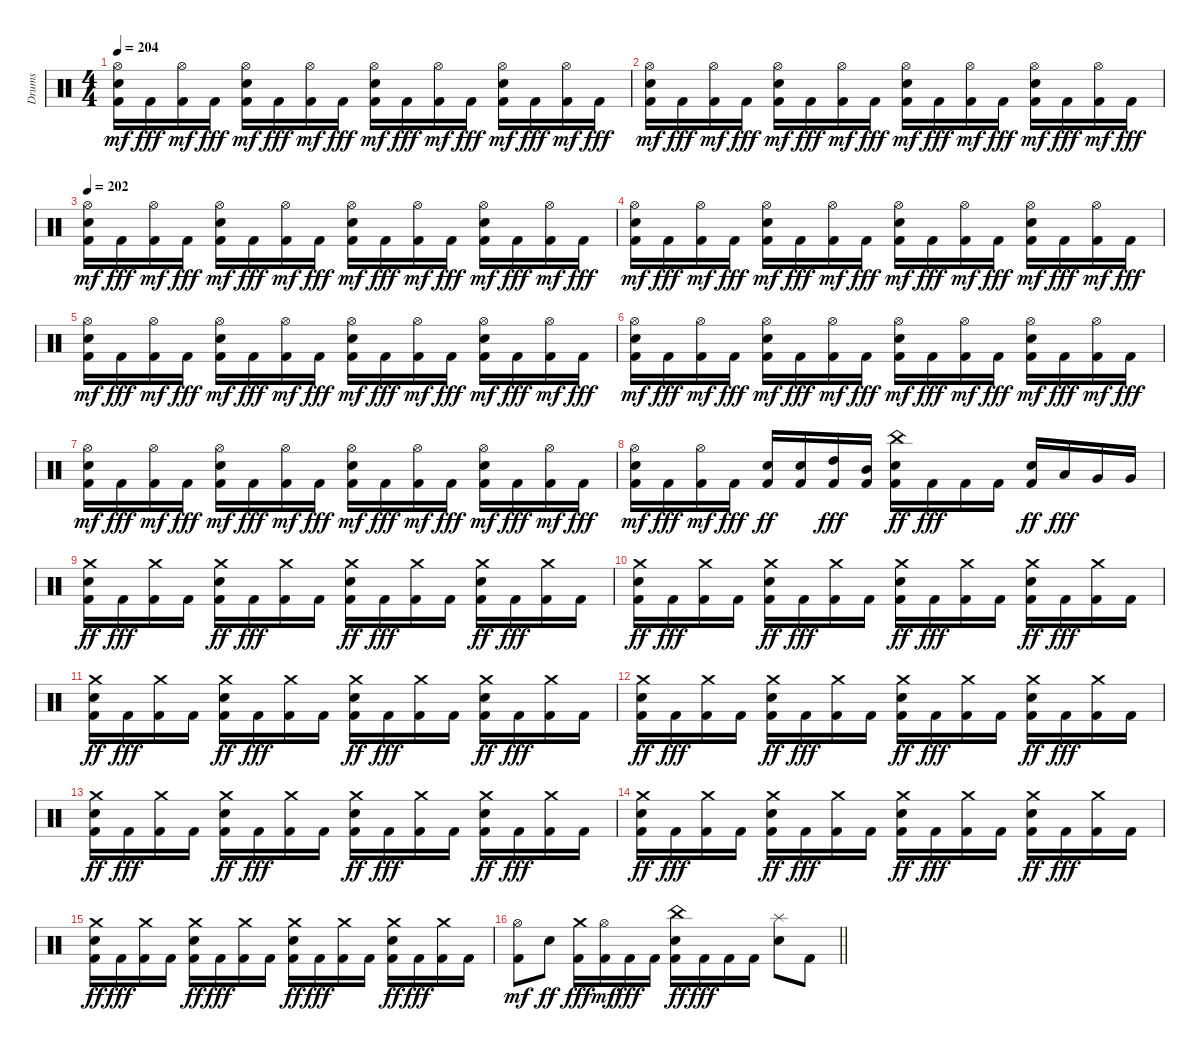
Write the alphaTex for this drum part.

\track ("Drums" "Drums") {instrument percussion}
\staff {score}
\articulation defaults
\ts (4 4)
\tempo 204
\clef neutral
\ks c
("Kick (hit) 2" "Snare (hit) 2" "Hi-Hat (open)").16{dy mf} "Kick (hit) 2".16{dy fff} ("Kick (hit) 2" "Hi-Hat (open)").16{dy mf} "Kick (hit) 2".16{dy fff} ("Kick (hit) 2" "Snare (hit) 2" "Hi-Hat (open)").16{dy mf} "Kick (hit) 2".16{dy fff} ("Kick (hit) 2" "Hi-Hat (open)").16{dy mf} "Kick (hit) 2".16{dy fff} ("Kick (hit) 2" "Snare (hit) 2" "Hi-Hat (open)").16{dy mf} "Kick (hit) 2".16{dy fff} ("Kick (hit) 2" "Hi-Hat (open)").16{dy mf} "Kick (hit) 2".16{dy fff} ("Kick (hit) 2" "Snare (hit) 2" "Hi-Hat (open)").16{dy mf} "Kick (hit) 2".16{dy fff} ("Kick (hit) 2" "Hi-Hat (open)").16{dy mf} "Kick (hit) 2".16{dy fff} |
("Kick (hit) 2" "Snare (hit) 2" "Hi-Hat (open)").16{dy mf} "Kick (hit) 2".16{dy fff} ("Kick (hit) 2" "Hi-Hat (open)").16{dy mf} "Kick (hit) 2".16{dy fff} ("Kick (hit) 2" "Snare (hit) 2" "Hi-Hat (open)").16{dy mf} "Kick (hit) 2".16{dy fff} ("Kick (hit) 2" "Hi-Hat (open)").16{dy mf} "Kick (hit) 2".16{dy fff} ("Kick (hit) 2" "Snare (hit) 2" "Hi-Hat (open)").16{dy mf} "Kick (hit) 2".16{dy fff} ("Kick (hit) 2" "Hi-Hat (open)").16{dy mf} "Kick (hit) 2".16{dy fff} ("Kick (hit) 2" "Snare (hit) 2" "Hi-Hat (open)").16{dy mf} "Kick (hit) 2".16{dy fff} ("Kick (hit) 2" "Hi-Hat (open)").16{dy mf} "Kick (hit) 2".16{dy fff} |
\tempo 202
("Kick (hit) 2" "Snare (hit) 2" "Hi-Hat (open)").16{dy mf} "Kick (hit) 2".16{dy fff} ("Kick (hit) 2" "Hi-Hat (open)").16{dy mf} "Kick (hit) 2".16{dy fff} ("Kick (hit) 2" "Snare (hit) 2" "Hi-Hat (open)").16{dy mf} "Kick (hit) 2".16{dy fff} ("Kick (hit) 2" "Hi-Hat (open)").16{dy mf} "Kick (hit) 2".16{dy fff} ("Kick (hit) 2" "Snare (hit) 2" "Hi-Hat (open)").16{dy mf} "Kick (hit) 2".16{dy fff} ("Kick (hit) 2" "Hi-Hat (open)").16{dy mf} "Kick (hit) 2".16{dy fff} ("Kick (hit) 2" "Snare (hit) 2" "Hi-Hat (open)").16{dy mf} "Kick (hit) 2".16{dy fff} ("Kick (hit) 2" "Hi-Hat (open)").16{dy mf} "Kick (hit) 2".16{dy fff} |
("Kick (hit) 2" "Snare (hit) 2" "Hi-Hat (open)").16{dy mf} "Kick (hit) 2".16{dy fff} ("Kick (hit) 2" "Hi-Hat (open)").16{dy mf} "Kick (hit) 2".16{dy fff} ("Kick (hit) 2" "Snare (hit) 2" "Hi-Hat (open)").16{dy mf} "Kick (hit) 2".16{dy fff} ("Kick (hit) 2" "Hi-Hat (open)").16{dy mf} "Kick (hit) 2".16{dy fff} ("Kick (hit) 2" "Snare (hit) 2" "Hi-Hat (open)").16{dy mf} "Kick (hit) 2".16{dy fff} ("Kick (hit) 2" "Hi-Hat (open)").16{dy mf} "Kick (hit) 2".16{dy fff} ("Kick (hit) 2" "Snare (hit) 2" "Hi-Hat (open)").16{dy mf} "Kick (hit) 2".16{dy fff} ("Kick (hit) 2" "Hi-Hat (open)").16{dy mf} "Kick (hit) 2".16{dy fff} |
("Kick (hit) 2" "Snare (hit) 2" "Hi-Hat (open)").16{dy mf} "Kick (hit) 2".16{dy fff} ("Kick (hit) 2" "Hi-Hat (open)").16{dy mf} "Kick (hit) 2".16{dy fff} ("Kick (hit) 2" "Snare (hit) 2" "Hi-Hat (open)").16{dy mf} "Kick (hit) 2".16{dy fff} ("Kick (hit) 2" "Hi-Hat (open)").16{dy mf} "Kick (hit) 2".16{dy fff} ("Kick (hit) 2" "Snare (hit) 2" "Hi-Hat (open)").16{dy mf} "Kick (hit) 2".16{dy fff} ("Kick (hit) 2" "Hi-Hat (open)").16{dy mf} "Kick (hit) 2".16{dy fff} ("Kick (hit) 2" "Snare (hit) 2" "Hi-Hat (open)").16{dy mf} "Kick (hit) 2".16{dy fff} ("Kick (hit) 2" "Hi-Hat (open)").16{dy mf} "Kick (hit) 2".16{dy fff} |
("Kick (hit) 2" "Snare (hit) 2" "Hi-Hat (open)").16{dy mf} "Kick (hit) 2".16{dy fff} ("Kick (hit) 2" "Hi-Hat (open)").16{dy mf} "Kick (hit) 2".16{dy fff} ("Kick (hit) 2" "Snare (hit) 2" "Hi-Hat (open)").16{dy mf} "Kick (hit) 2".16{dy fff} ("Kick (hit) 2" "Hi-Hat (open)").16{dy mf} "Kick (hit) 2".16{dy fff} ("Kick (hit) 2" "Snare (hit) 2" "Hi-Hat (open)").16{dy mf} "Kick (hit) 2".16{dy fff} ("Kick (hit) 2" "Hi-Hat (open)").16{dy mf} "Kick (hit) 2".16{dy fff} ("Kick (hit) 2" "Snare (hit) 2" "Hi-Hat (open)").16{dy mf} "Kick (hit) 2".16{dy fff} ("Kick (hit) 2" "Hi-Hat (open)").16{dy mf} "Kick (hit) 2".16{dy fff} |
("Kick (hit) 2" "Snare (hit) 2" "Hi-Hat (open)").16{dy mf} "Kick (hit) 2".16{dy fff} ("Kick (hit) 2" "Hi-Hat (open)").16{dy mf} "Kick (hit) 2".16{dy fff} ("Kick (hit) 2" "Snare (hit) 2" "Hi-Hat (open)").16{dy mf} "Kick (hit) 2".16{dy fff} ("Kick (hit) 2" "Hi-Hat (open)").16{dy mf} "Kick (hit) 2".16{dy fff} ("Kick (hit) 2" "Snare (hit) 2" "Hi-Hat (open)").16{dy mf} "Kick (hit) 2".16{dy fff} ("Kick (hit) 2" "Hi-Hat (open)").16{dy mf} "Kick (hit) 2".16{dy fff} ("Kick (hit) 2" "Snare (hit) 2" "Hi-Hat (open)").16{dy mf} "Kick (hit) 2".16{dy fff} ("Kick (hit) 2" "Hi-Hat (open)").16{dy mf} "Kick (hit) 2".16{dy fff} |
("Kick (hit) 2" "Snare (hit) 2" "Hi-Hat (open)").16{dy mf} "Kick (hit) 2".16{dy fff} ("Kick (hit) 2" "Hi-Hat (open)").16{dy mf} "Kick (hit) 2".16{dy fff} ("Kick (hit) 2" "Snare (hit) 2").16{dy ff} ("Kick (hit) 2" "Snare (hit) 2").16 ("Kick (hit) 2" "High Tom (hit)").16{dy fff} ("Kick (hit) 2" "Mid Tom (hit)").16 ("Kick (hit) 2" "Snare (hit) 2" "China (hit)").16{dy ff} "Kick (hit) 2".16{dy fff} "Kick (hit) 2".16 "Kick (hit) 2".16 ("Kick (hit) 2" "Snare (hit) 2").16{dy ff} "Low Tom (hit)".16{dy fff} "Very Low Tom (hit)".16 "Very Low Tom (hit)".16 |
("Kick (hit) 2" "Snare (hit) 2" "Crash medium (hit)").16{dy ff} "Kick (hit) 2".16{dy fff} ("Kick (hit) 2" "Crash medium (hit)").16 "Kick (hit) 2".16 ("Kick (hit) 2" "Snare (hit) 2" "Crash medium (hit)").16{dy ff} "Kick (hit) 2".16{dy fff} ("Kick (hit) 2" "Crash medium (hit)").16 "Kick (hit) 2".16 ("Kick (hit) 2" "Snare (hit) 2" "Crash medium (hit)").16{dy ff} "Kick (hit) 2".16{dy fff} ("Kick (hit) 2" "Crash medium (hit)").16 "Kick (hit) 2".16 ("Kick (hit) 2" "Snare (hit) 2" "Crash medium (hit)").16{dy ff} "Kick (hit) 2".16{dy fff} ("Kick (hit) 2" "Crash medium (hit)").16 "Kick (hit) 2".16 |
("Kick (hit) 2" "Snare (hit) 2" "Crash medium (hit)").16{dy ff} "Kick (hit) 2".16{dy fff} ("Kick (hit) 2" "Crash medium (hit)").16 "Kick (hit) 2".16 ("Kick (hit) 2" "Snare (hit) 2" "Crash medium (hit)").16{dy ff} "Kick (hit) 2".16{dy fff} ("Kick (hit) 2" "Crash medium (hit)").16 "Kick (hit) 2".16 ("Kick (hit) 2" "Snare (hit) 2" "Crash medium (hit)").16{dy ff} "Kick (hit) 2".16{dy fff} ("Kick (hit) 2" "Crash medium (hit)").16 "Kick (hit) 2".16 ("Kick (hit) 2" "Snare (hit) 2" "Crash medium (hit)").16{dy ff} "Kick (hit) 2".16{dy fff} ("Kick (hit) 2" "Crash medium (hit)").16 "Kick (hit) 2".16 |
("Kick (hit) 2" "Snare (hit) 2" "Crash medium (hit)").16{dy ff} "Kick (hit) 2".16{dy fff} ("Kick (hit) 2" "Crash medium (hit)").16 "Kick (hit) 2".16 ("Kick (hit) 2" "Snare (hit) 2" "Crash medium (hit)").16{dy ff} "Kick (hit) 2".16{dy fff} ("Kick (hit) 2" "Crash medium (hit)").16 "Kick (hit) 2".16 ("Kick (hit) 2" "Snare (hit) 2" "Crash medium (hit)").16{dy ff} "Kick (hit) 2".16{dy fff} ("Kick (hit) 2" "Crash medium (hit)").16 "Kick (hit) 2".16 ("Kick (hit) 2" "Snare (hit) 2" "Crash medium (hit)").16{dy ff} "Kick (hit) 2".16{dy fff} ("Kick (hit) 2" "Crash medium (hit)").16 "Kick (hit) 2".16 |
("Kick (hit) 2" "Snare (hit) 2" "Crash medium (hit)").16{dy ff} "Kick (hit) 2".16{dy fff} ("Kick (hit) 2" "Crash medium (hit)").16 "Kick (hit) 2".16 ("Kick (hit) 2" "Snare (hit) 2" "Crash medium (hit)").16{dy ff} "Kick (hit) 2".16{dy fff} ("Kick (hit) 2" "Crash medium (hit)").16 "Kick (hit) 2".16 ("Kick (hit) 2" "Snare (hit) 2" "Crash medium (hit)").16{dy ff} "Kick (hit) 2".16{dy fff} ("Kick (hit) 2" "Crash medium (hit)").16 "Kick (hit) 2".16 ("Kick (hit) 2" "Snare (hit) 2" "Crash medium (hit)").16{dy ff} "Kick (hit) 2".16{dy fff} ("Kick (hit) 2" "Crash medium (hit)").16 "Kick (hit) 2".16 |
("Kick (hit) 2" "Snare (hit) 2" "Crash medium (hit)").16{dy ff} "Kick (hit) 2".16{dy fff} ("Kick (hit) 2" "Crash medium (hit)").16 "Kick (hit) 2".16 ("Kick (hit) 2" "Snare (hit) 2" "Crash medium (hit)").16{dy ff} "Kick (hit) 2".16{dy fff} ("Kick (hit) 2" "Crash medium (hit)").16 "Kick (hit) 2".16 ("Kick (hit) 2" "Snare (hit) 2" "Crash medium (hit)").16{dy ff} "Kick (hit) 2".16{dy fff} ("Kick (hit) 2" "Crash medium (hit)").16 "Kick (hit) 2".16 ("Kick (hit) 2" "Snare (hit) 2" "Crash medium (hit)").16{dy ff} "Kick (hit) 2".16{dy fff} ("Kick (hit) 2" "Crash medium (hit)").16 "Kick (hit) 2".16 |
("Kick (hit) 2" "Snare (hit) 2" "Crash medium (hit)").16{dy ff} "Kick (hit) 2".16{dy fff} ("Kick (hit) 2" "Crash medium (hit)").16 "Kick (hit) 2".16 ("Kick (hit) 2" "Snare (hit) 2" "Crash medium (hit)").16{dy ff} "Kick (hit) 2".16{dy fff} ("Kick (hit) 2" "Crash medium (hit)").16 "Kick (hit) 2".16 ("Kick (hit) 2" "Snare (hit) 2" "Crash medium (hit)").16{dy ff} "Kick (hit) 2".16{dy fff} ("Kick (hit) 2" "Crash medium (hit)").16 "Kick (hit) 2".16 ("Kick (hit) 2" "Snare (hit) 2" "Crash medium (hit)").16{dy ff} "Kick (hit) 2".16{dy fff} ("Kick (hit) 2" "Crash medium (hit)").16 "Kick (hit) 2".16 |
("Kick (hit) 2" "Snare (hit) 2" "Crash medium (hit)").16{dy ff} "Kick (hit) 2".16{dy fff} ("Kick (hit) 2" "Crash medium (hit)").16 "Kick (hit) 2".16 ("Kick (hit) 2" "Snare (hit) 2" "Crash medium (hit)").16{dy ff} "Kick (hit) 2".16{dy fff} ("Kick (hit) 2" "Crash medium (hit)").16 "Kick (hit) 2".16 ("Kick (hit) 2" "Snare (hit) 2" "Crash medium (hit)").16{dy ff} "Kick (hit) 2".16{dy fff} ("Kick (hit) 2" "Crash medium (hit)").16 "Kick (hit) 2".16 ("Kick (hit) 2" "Snare (hit) 2" "Crash medium (hit)").16{dy ff} "Kick (hit) 2".16{dy fff} ("Kick (hit) 2" "Crash medium (hit)").16 "Kick (hit) 2".16 |
\barLineRight lightlight
("Kick (hit) 2" "Hi-Hat (open)").8{dy mf} "Snare (hit) 2".8{dy ff} ("Kick (hit) 2" "Crash medium (hit)").16{dy fff} ("Kick (hit) 2" "Hi-Hat (open)").16{dy mf} "Kick (hit) 2".16{dy fff} "Kick (hit) 2".16 ("Kick (hit) 2" "Snare (hit) 2" "China (hit)").16{dy ff} "Kick (hit) 2".16{dy fff} "Kick (hit) 2".16 "Kick (hit) 2".16 ("Snare (hit) 2" "Splash (hit)").8 "Kick (hit) 2".8
